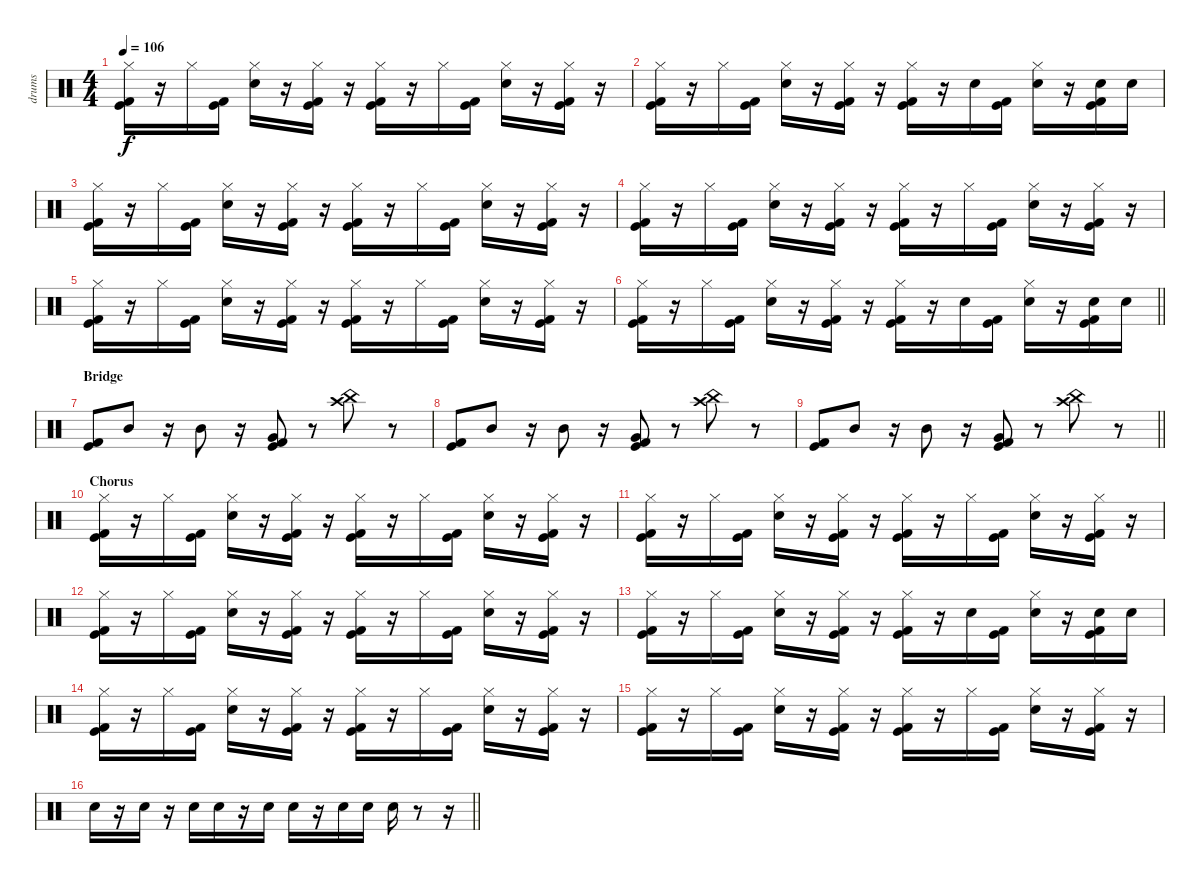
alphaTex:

\track ("drums" "drums") {instrument percussion}
\staff {score}
\articulation defaults
\ts (4 4)
\tempo 106
\clef neutral
\ks c
("Hi-Hat (closed)" "Kick (hit) 2" "Kick (hit)").16{dy f} r.16 "Hi-Hat (closed)".16 ("Kick (hit) 2" "Kick (hit)").16 ("Hi-Hat (closed)" "Electric Snare (hit)").16 r.16 ("Hi-Hat (closed)" "Kick (hit) 2" "Kick (hit)").16 r.16 ("Hi-Hat (closed)" "Kick (hit) 2" "Kick (hit)").16 r.16 "Hi-Hat (closed)".16 ("Kick (hit) 2" "Kick (hit)").16 ("Hi-Hat (closed)" "Electric Snare (hit)").16 r.16 ("Hi-Hat (closed)" "Kick (hit) 2" "Kick (hit)").16 r.16 |
("Hi-Hat (closed)" "Kick (hit) 2" "Kick (hit)").16 r.16 "Hi-Hat (closed)".16 ("Kick (hit) 2" "Kick (hit)").16 ("Hi-Hat (closed)" "Electric Snare (hit)").16 r.16 ("Hi-Hat (closed)" "Kick (hit) 2" "Kick (hit)").16 r.16 ("Hi-Hat (closed)" "Kick (hit) 2" "Kick (hit)").16 r.16 "Electric Snare (hit)".16 ("Kick (hit) 2" "Kick (hit)").16 ("Hi-Hat (closed)" "Electric Snare (hit)").16 r.16 ("Electric Snare (hit)" "Kick (hit) 2" "Kick (hit)").16 "Electric Snare (hit)".16 |
("Hi-Hat (closed)" "Kick (hit) 2" "Kick (hit)").16 r.16 "Hi-Hat (closed)".16 ("Kick (hit) 2" "Kick (hit)").16 ("Hi-Hat (closed)" "Electric Snare (hit)").16 r.16 ("Hi-Hat (closed)" "Kick (hit) 2" "Kick (hit)").16 r.16 ("Hi-Hat (closed)" "Kick (hit) 2" "Kick (hit)").16 r.16 "Hi-Hat (closed)".16 ("Kick (hit) 2" "Kick (hit)").16 ("Hi-Hat (closed)" "Electric Snare (hit)").16 r.16 ("Hi-Hat (closed)" "Kick (hit) 2" "Kick (hit)").16 r.16 |
("Hi-Hat (closed)" "Kick (hit) 2" "Kick (hit)").16 r.16 "Hi-Hat (closed)".16 ("Kick (hit) 2" "Kick (hit)").16 ("Hi-Hat (closed)" "Electric Snare (hit)").16 r.16 ("Hi-Hat (closed)" "Kick (hit) 2" "Kick (hit)").16 r.16 ("Hi-Hat (closed)" "Kick (hit) 2" "Kick (hit)").16 r.16 "Hi-Hat (closed)".16 ("Kick (hit) 2" "Kick (hit)").16 ("Hi-Hat (closed)" "Electric Snare (hit)").16 r.16 ("Hi-Hat (closed)" "Kick (hit) 2" "Kick (hit)").16 r.16 |
("Hi-Hat (closed)" "Kick (hit) 2" "Kick (hit)").16 r.16 "Hi-Hat (closed)".16 ("Kick (hit) 2" "Kick (hit)").16 ("Hi-Hat (closed)" "Electric Snare (hit)").16 r.16 ("Hi-Hat (closed)" "Kick (hit) 2" "Kick (hit)").16 r.16 ("Hi-Hat (closed)" "Kick (hit) 2" "Kick (hit)").16 r.16 "Hi-Hat (closed)".16 ("Kick (hit) 2" "Kick (hit)").16 ("Hi-Hat (closed)" "Electric Snare (hit)").16 r.16 ("Hi-Hat (closed)" "Kick (hit) 2" "Kick (hit)").16 r.16 |
\barLineRight lightlight
("Hi-Hat (closed)" "Kick (hit) 2" "Kick (hit)").16 r.16 "Hi-Hat (closed)".16 ("Kick (hit) 2" "Kick (hit)").16 ("Hi-Hat (closed)" "Electric Snare (hit)").16 r.16 ("Hi-Hat (closed)" "Kick (hit) 2" "Kick (hit)").16 r.16 ("Hi-Hat (closed)" "Kick (hit) 2" "Kick (hit)").16 r.16 "Electric Snare (hit)".16 ("Kick (hit) 2" "Kick (hit)").16 ("Hi-Hat (closed)" "Electric Snare (hit)").16 r.16 ("Electric Snare (hit)" "Kick (hit) 2" "Kick (hit)").16 "Electric Snare (hit)".16 |
\section ("" "Bridge")
("Kick (hit) 2" "Kick (hit)").8 "Mid Tom (hit)".8 r.16 "Mid Tom (hit)".8 r.16 ("Very Low Tom (hit)" "Kick (hit) 2" "Kick (hit)").8 r.8 ("Crash high (hit)" "China (hit)").8 r.8 |
("Kick (hit) 2" "Kick (hit)").8 "Mid Tom (hit)".8 r.16 "Mid Tom (hit)".8 r.16 ("Very Low Tom (hit)" "Kick (hit) 2" "Kick (hit)").8 r.8 ("Crash high (hit)" "China (hit)").8 r.8 |
\barLineRight lightlight
("Kick (hit) 2" "Kick (hit)").8 "Mid Tom (hit)".8 r.16 "Mid Tom (hit)".8 r.16 ("Very Low Tom (hit)" "Kick (hit) 2" "Kick (hit)").8 r.8 ("Crash high (hit)" "China (hit)").8 r.8 |
\section ("" "Chorus")
("Hi-Hat (closed)" "Kick (hit) 2" "Kick (hit)").16 r.16 "Hi-Hat (closed)".16 ("Kick (hit) 2" "Kick (hit)").16 ("Hi-Hat (closed)" "Electric Snare (hit)").16 r.16 ("Hi-Hat (closed)" "Kick (hit) 2" "Kick (hit)").16 r.16 ("Hi-Hat (closed)" "Kick (hit) 2" "Kick (hit)").16 r.16 "Hi-Hat (closed)".16 ("Kick (hit) 2" "Kick (hit)").16 ("Hi-Hat (closed)" "Electric Snare (hit)").16 r.16 ("Hi-Hat (closed)" "Kick (hit) 2" "Kick (hit)").16 r.16 |
("Hi-Hat (closed)" "Kick (hit) 2" "Kick (hit)").16 r.16 "Hi-Hat (closed)".16 ("Kick (hit) 2" "Kick (hit)").16 ("Hi-Hat (closed)" "Electric Snare (hit)").16 r.16 ("Hi-Hat (closed)" "Kick (hit) 2" "Kick (hit)").16 r.16 ("Hi-Hat (closed)" "Kick (hit) 2" "Kick (hit)").16 r.16 "Hi-Hat (closed)".16 ("Kick (hit) 2" "Kick (hit)").16 ("Hi-Hat (closed)" "Electric Snare (hit)").16 r.16 ("Hi-Hat (closed)" "Kick (hit) 2" "Kick (hit)").16 r.16 |
("Hi-Hat (closed)" "Kick (hit) 2" "Kick (hit)").16 r.16 "Hi-Hat (closed)".16 ("Kick (hit) 2" "Kick (hit)").16 ("Hi-Hat (closed)" "Electric Snare (hit)").16 r.16 ("Hi-Hat (closed)" "Kick (hit) 2" "Kick (hit)").16 r.16 ("Hi-Hat (closed)" "Kick (hit) 2" "Kick (hit)").16 r.16 "Hi-Hat (closed)".16 ("Kick (hit) 2" "Kick (hit)").16 ("Hi-Hat (closed)" "Electric Snare (hit)").16 r.16 ("Hi-Hat (closed)" "Kick (hit) 2" "Kick (hit)").16 r.16 |
("Hi-Hat (closed)" "Kick (hit) 2" "Kick (hit)").16 r.16 "Hi-Hat (closed)".16 ("Kick (hit) 2" "Kick (hit)").16 ("Hi-Hat (closed)" "Electric Snare (hit)").16 r.16 ("Hi-Hat (closed)" "Kick (hit) 2" "Kick (hit)").16 r.16 ("Hi-Hat (closed)" "Kick (hit) 2" "Kick (hit)").16 r.16 "Electric Snare (hit)".16 ("Kick (hit) 2" "Kick (hit)").16 ("Hi-Hat (closed)" "Electric Snare (hit)").16 r.16 ("Electric Snare (hit)" "Kick (hit) 2" "Kick (hit)").16 "Electric Snare (hit)".16 |
("Hi-Hat (closed)" "Kick (hit) 2" "Kick (hit)").16 r.16 "Hi-Hat (closed)".16 ("Kick (hit) 2" "Kick (hit)").16 ("Hi-Hat (closed)" "Electric Snare (hit)").16 r.16 ("Hi-Hat (closed)" "Kick (hit) 2" "Kick (hit)").16 r.16 ("Hi-Hat (closed)" "Kick (hit) 2" "Kick (hit)").16 r.16 "Hi-Hat (closed)".16 ("Kick (hit) 2" "Kick (hit)").16 ("Hi-Hat (closed)" "Electric Snare (hit)").16 r.16 ("Hi-Hat (closed)" "Kick (hit) 2" "Kick (hit)").16 r.16 |
("Hi-Hat (closed)" "Kick (hit) 2" "Kick (hit)").16 r.16 "Hi-Hat (closed)".16 ("Kick (hit) 2" "Kick (hit)").16 ("Hi-Hat (closed)" "Electric Snare (hit)").16 r.16 ("Hi-Hat (closed)" "Kick (hit) 2" "Kick (hit)").16 r.16 ("Hi-Hat (closed)" "Kick (hit) 2" "Kick (hit)").16 r.16 "Hi-Hat (closed)".16 ("Kick (hit) 2" "Kick (hit)").16 ("Hi-Hat (closed)" "Electric Snare (hit)").16 r.16 ("Hi-Hat (closed)" "Kick (hit) 2" "Kick (hit)").16 r.16 |
\barLineRight lightlight "Electric Snare (hit)".16
r.16 "Electric Snare (hit)".16 r.16 "Electric Snare (hit)".16 "Electric Snare (hit)".16 r.16 "Electric Snare (hit)".16 "Electric Snare (hit)".16 r.16 "Electric Snare (hit)".16 "Electric Snare (hit)".16 "Electric Snare (hit)".16 r.8 r.16
